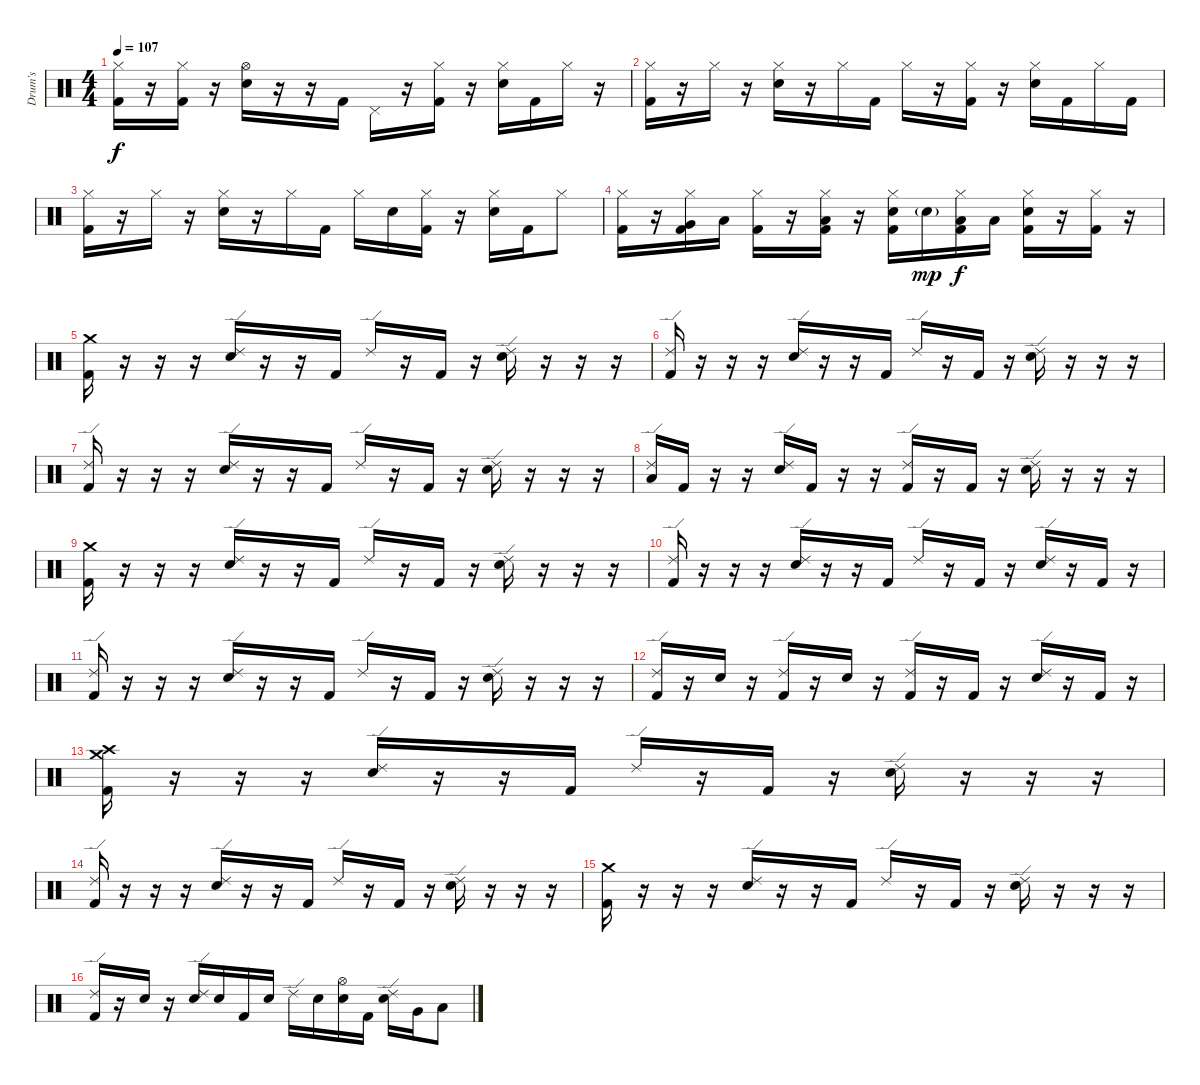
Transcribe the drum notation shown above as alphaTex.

\track ("Drum's" "Drum's") {instrument percussion}
\staff {score}
\articulation defaults
\ts (4 4)
\tempo 107
\clef neutral
\ks c
("Hi-Hat (closed)" "Kick (hit) 2").16{dy f} r.16 ("Hi-Hat (closed)" "Kick (hit) 2").16 r.16 ("Hi-Hat (open)" "Snare (hit) 2").16 r.16 r.16 "Kick (hit) 2".16 "Pedal Hi-Hat (hit)".16 r.16 ("Hi-Hat (closed)" "Kick (hit) 2").16 r.16 ("Hi-Hat (closed)" "Snare (hit) 2").16 "Kick (hit) 2".16 "Hi-Hat (closed)".16 r.16 |
("Hi-Hat (closed)" "Kick (hit) 2").16 r.16 "Hi-Hat (closed)".16 r.16 ("Hi-Hat (closed)" "Snare (hit) 2").16 r.16 "Hi-Hat (closed)".16 "Kick (hit) 2".16 "Hi-Hat (closed)".16 r.16 ("Hi-Hat (closed)" "Kick (hit) 2").16 r.16 ("Hi-Hat (closed)" "Snare (hit) 2").16 "Kick (hit) 2".16 "Hi-Hat (closed)".16 "Kick (hit) 2".16 |
("Hi-Hat (closed)" "Kick (hit) 2").16 r.16 "Hi-Hat (closed)".16 r.16 ("Hi-Hat (closed)" "Snare (hit) 2").16 r.16 "Hi-Hat (closed)".16 "Kick (hit) 2".16 "Hi-Hat (closed)".16 "Snare (hit) 2".16 ("Hi-Hat (closed)" "Kick (hit) 2").16 r.16 ("Hi-Hat (closed)" "Snare (hit) 2").16 "Kick (hit) 2".16 "Hi-Hat (closed)".8 |
("Hi-Hat (closed)" "Kick (hit) 2").16 r.16 ("Hi-Hat (closed)" "Very Low Tom (hit)" "Kick (hit) 2").16 "Low Floor Tom (hit)".16 ("Hi-Hat (closed)" "Kick (hit) 2").16 r.16 ("Hi-Hat (closed)" "Low Floor Tom (hit)" "Kick (hit) 2").16 r.16 ("Hi-Hat (closed)" "Snare (hit) 2" "Kick (hit) 2").16 "Snare (hit) 2"{g}.16{dy mp} ("Hi-Hat (closed)" "Low Floor Tom (hit)" "Kick (hit) 2").16{dy f} "Low Floor Tom (hit)".16 ("Hi-Hat (closed)" "Snare (hit) 2" "Kick (hit) 2").16 r.16 ("Hi-Hat (closed)" "Kick (hit) 2").16 r.16 |
("Crash medium (hit)" "Kick (hit) 2").16 r.16 r.16 r.16 ("Ride (edge) 2" "Snare (hit) 2").16 r.16 r.16 "Kick (hit) 2".16 "Ride (edge) 2".16 r.16 "Kick (hit) 2".16 r.16 ("Ride (edge) 2" "Snare (hit) 2").16 r.16 r.16 r.16 |
("Ride (edge) 2" "Kick (hit) 2").16 r.16 r.16 r.16 ("Ride (edge) 2" "Snare (hit) 2").16 r.16 r.16 "Kick (hit) 2".16 "Ride (edge) 2".16 r.16 "Kick (hit) 2".16 r.16 ("Ride (edge) 2" "Snare (hit) 2").16 r.16 r.16 r.16 |
("Ride (edge) 2" "Kick (hit) 2").16 r.16 r.16 r.16 ("Ride (edge) 2" "Snare (hit) 2").16 r.16 r.16 "Kick (hit) 2".16 "Ride (edge) 2".16 r.16 "Kick (hit) 2".16 r.16 ("Ride (edge) 2" "Snare (hit) 2").16 r.16 r.16 r.16 |
("Ride (edge) 2" "Low Floor Tom (hit)").16 "Kick (hit) 2".16 r.16 r.16 ("Ride (edge) 2" "Snare (hit) 2").16 "Kick (hit) 2".16 r.16 r.16 ("Ride (edge) 2" "Kick (hit) 2").16 r.16 "Kick (hit) 2".16 r.16 ("Ride (edge) 2" "Snare (hit) 2").16 r.16 r.16 r.16 |
("Crash medium (hit)" "Kick (hit) 2").16 r.16 r.16 r.16 ("Ride (edge) 2" "Snare (hit) 2").16 r.16 r.16 "Kick (hit) 2".16 "Ride (edge) 2".16 r.16 "Kick (hit) 2".16 r.16 ("Ride (edge) 2" "Snare (hit) 2").16 r.16 r.16 r.16 |
("Ride (edge) 2" "Kick (hit) 2").16 r.16 r.16 r.16 ("Ride (edge) 2" "Snare (hit) 2").16 r.16 r.16 "Kick (hit) 2".16 "Ride (edge) 2".16 r.16 "Kick (hit) 2".16 r.16 ("Ride (edge) 2" "Snare (hit) 2").16 r.16 "Kick (hit) 2".16 r.16 |
("Ride (edge) 2" "Kick (hit) 2").16 r.16 r.16 r.16 ("Ride (edge) 2" "Snare (hit) 2").16 r.16 r.16 "Kick (hit) 2".16 "Ride (edge) 2".16 r.16 "Kick (hit) 2".16 r.16 ("Ride (edge) 2" "Snare (hit) 2").16 r.16 r.16 r.16 |
("Ride (edge) 2" "Kick (hit) 2").16 r.16 "Snare (hit) 2".16 r.16 ("Ride (edge) 2" "Kick (hit) 2").16 r.16 "Snare (hit) 2".16 r.16 ("Ride (edge) 2" "Kick (hit) 2").16 r.16 "Kick (hit) 2".16 r.16 ("Ride (edge) 2" "Snare (hit) 2").16 r.16 "Kick (hit) 2".16 r.16 |
("Crash medium (hit)" "Crash high (hit)" "Kick (hit) 2").16 r.16 r.16 r.16 ("Ride (edge) 2" "Snare (hit) 2").16 r.16 r.16 "Kick (hit) 2".16 "Ride (edge) 2".16 r.16 "Kick (hit) 2".16 r.16 ("Ride (edge) 2" "Snare (hit) 2").16 r.16 r.16 r.16 |
("Ride (edge) 2" "Kick (hit) 2").16 r.16 r.16 r.16 ("Ride (edge) 2" "Snare (hit) 2").16 r.16 r.16 "Kick (hit) 2".16 "Ride (edge) 2".16 r.16 "Kick (hit) 2".16 r.16 ("Ride (edge) 2" "Snare (hit) 2").16 r.16 r.16 r.16 |
("Crash medium (hit)" "Kick (hit) 2").16 r.16 r.16 r.16 ("Ride (edge) 2" "Snare (hit) 2").16 r.16 r.16 "Kick (hit) 2".16 "Ride (edge) 2".16 r.16 "Kick (hit) 2".16 r.16 ("Ride (edge) 2" "Snare (hit) 2").16 r.16 r.16 r.16 |
("Ride (edge) 2" "Kick (hit) 2").16 r.16 "Snare (hit) 2".16 r.16 ("Ride (edge) 2" "Snare (hit) 2").16 "Snare (hit) 2".16 "Kick (hit) 2".16 "Snare (hit) 2".16 "Ride (edge) 2".16 "Snare (hit) 2".16 ("Hi-Hat (open)" "Snare (hit) 2").16 "Kick (hit) 2".16 ("Ride (edge) 2" "Snare (hit) 2").16 "Very Low Tom (hit)".16 "Low Floor Tom (hit)".8
